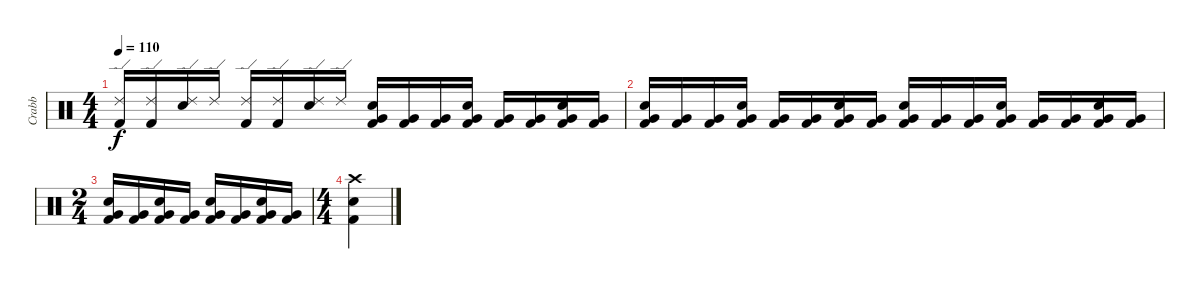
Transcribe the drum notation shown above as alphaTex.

\track ("Crabb" "Crabb") {instrument percussion}
\staff {score}
\articulation defaults
\ts (4 4)
\tempo 110
\clef neutral
\ks c
("Ride (edge) 2" "Kick (hit) 2").16{dy f} ("Ride (edge) 2" "Kick (hit) 2").16 ("Ride (edge) 2" "Electric Snare (hit)").16 "Ride (edge) 2".16 ("Ride (edge) 2" "Kick (hit) 2").16 ("Ride (edge) 2" "Kick (hit) 2").16 ("Ride (edge) 2" "Electric Snare (hit)").16 "Ride (edge) 2".16 ("Electric Snare (hit)" "Very Low Tom (hit)" "Kick (hit) 2").16 ("Very Low Tom (hit)" "Kick (hit) 2").16 ("Very Low Tom (hit)" "Kick (hit) 2").16 ("Electric Snare (hit)" "Very Low Tom (hit)" "Kick (hit) 2").16 ("Very Low Tom (hit)" "Kick (hit) 2").16 ("Very Low Tom (hit)" "Kick (hit) 2").16 ("Electric Snare (hit)" "Very Low Tom (hit)" "Kick (hit) 2").16 ("Very Low Tom (hit)" "Kick (hit) 2").16 |
("Electric Snare (hit)" "Very Low Tom (hit)" "Kick (hit) 2").16 ("Very Low Tom (hit)" "Kick (hit) 2").16 ("Very Low Tom (hit)" "Kick (hit) 2").16 ("Electric Snare (hit)" "Very Low Tom (hit)" "Kick (hit) 2").16 ("Very Low Tom (hit)" "Kick (hit) 2").16 ("Very Low Tom (hit)" "Kick (hit) 2").16 ("Electric Snare (hit)" "Very Low Tom (hit)" "Kick (hit) 2").16 ("Very Low Tom (hit)" "Kick (hit) 2").16 ("Electric Snare (hit)" "Very Low Tom (hit)" "Kick (hit) 2").16 ("Very Low Tom (hit)" "Kick (hit) 2").16 ("Very Low Tom (hit)" "Kick (hit) 2").16 ("Electric Snare (hit)" "Very Low Tom (hit)" "Kick (hit) 2").16 ("Very Low Tom (hit)" "Kick (hit) 2").16 ("Very Low Tom (hit)" "Kick (hit) 2").16 ("Electric Snare (hit)" "Very Low Tom (hit)" "Kick (hit) 2").16 ("Very Low Tom (hit)" "Kick (hit) 2").16 |
\ts (2 4)
("Electric Snare (hit)" "Very Low Tom (hit)" "Kick (hit) 2").16 ("Very Low Tom (hit)" "Kick (hit) 2").16 ("Electric Snare (hit)" "Very Low Tom (hit)" "Kick (hit) 2").16 ("Very Low Tom (hit)" "Kick (hit) 2").16 ("Electric Snare (hit)" "Very Low Tom (hit)" "Kick (hit) 2").16 ("Very Low Tom (hit)" "Kick (hit) 2").16 ("Electric Snare (hit)" "Very Low Tom (hit)" "Kick (hit) 2").16 ("Very Low Tom (hit)" "Kick (hit) 2").16 |
\ts (4 4)
("Crash high (hit)" "Kick (hit) 2" "Electric Snare (hit)").4
